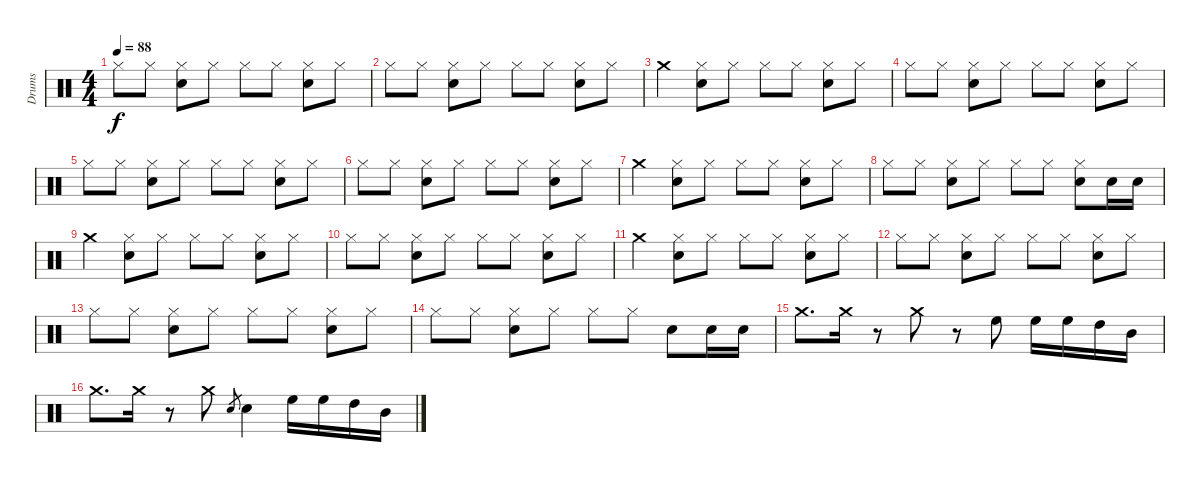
\track ("Drums" "Drums") {instrument percussion}
\staff {score}
\articulation defaults
\ts (4 4)
\tempo 88
\clef neutral
\ks c "Hi-Hat (closed)".8{dy f} "Hi-Hat (closed)".8
("Hi-Hat (closed)" "Electric Snare (hit)").8 "Hi-Hat (closed)".8 "Hi-Hat (closed)".8 "Hi-Hat (closed)".8 ("Hi-Hat (closed)" "Electric Snare (hit)").8 "Hi-Hat (closed)".8 |
"Hi-Hat (closed)".8 "Hi-Hat (closed)".8 ("Hi-Hat (closed)" "Electric Snare (hit)").8 "Hi-Hat (closed)".8 "Hi-Hat (closed)".8 "Hi-Hat (closed)".8 ("Hi-Hat (closed)" "Electric Snare (hit)").8 "Hi-Hat (closed)".8 |
"Crash medium (hit)".4 ("Hi-Hat (closed)" "Electric Snare (hit)").8 "Hi-Hat (closed)".8 "Hi-Hat (closed)".8 "Hi-Hat (closed)".8 ("Hi-Hat (closed)" "Electric Snare (hit)").8 "Hi-Hat (closed)".8 |
"Hi-Hat (closed)".8 "Hi-Hat (closed)".8 ("Hi-Hat (closed)" "Electric Snare (hit)").8 "Hi-Hat (closed)".8 "Hi-Hat (closed)".8 "Hi-Hat (closed)".8 ("Hi-Hat (closed)" "Electric Snare (hit)").8 "Hi-Hat (closed)".8 |
"Hi-Hat (closed)".8 "Hi-Hat (closed)".8 ("Hi-Hat (closed)" "Electric Snare (hit)").8 "Hi-Hat (closed)".8 "Hi-Hat (closed)".8 "Hi-Hat (closed)".8 ("Hi-Hat (closed)" "Electric Snare (hit)").8 "Hi-Hat (closed)".8 |
"Hi-Hat (closed)".8 "Hi-Hat (closed)".8 ("Hi-Hat (closed)" "Electric Snare (hit)").8 "Hi-Hat (closed)".8 "Hi-Hat (closed)".8 "Hi-Hat (closed)".8 ("Hi-Hat (closed)" "Electric Snare (hit)").8 "Hi-Hat (closed)".8 |
"Crash medium (hit)".4 ("Hi-Hat (closed)" "Electric Snare (hit)").8 "Hi-Hat (closed)".8 "Hi-Hat (closed)".8 "Hi-Hat (closed)".8 ("Hi-Hat (closed)" "Electric Snare (hit)").8 "Hi-Hat (closed)".8 |
"Hi-Hat (closed)".8 "Hi-Hat (closed)".8 ("Hi-Hat (closed)" "Electric Snare (hit)").8 "Hi-Hat (closed)".8 "Hi-Hat (closed)".8 "Hi-Hat (closed)".8 ("Hi-Hat (closed)" "Electric Snare (hit)").8 "Electric Snare (hit)".16 "Electric Snare (hit)".16 |
"Crash medium (hit)".4 ("Hi-Hat (closed)" "Electric Snare (hit)").8 "Hi-Hat (closed)".8 "Hi-Hat (closed)".8 "Hi-Hat (closed)".8 ("Hi-Hat (closed)" "Electric Snare (hit)").8 "Hi-Hat (closed)".8 |
"Hi-Hat (closed)".8 "Hi-Hat (closed)".8 ("Hi-Hat (closed)" "Electric Snare (hit)").8 "Hi-Hat (closed)".8 "Hi-Hat (closed)".8 "Hi-Hat (closed)".8 ("Hi-Hat (closed)" "Electric Snare (hit)").8 "Hi-Hat (closed)".8 |
"Crash medium (hit)".4 ("Hi-Hat (closed)" "Electric Snare (hit)").8 "Hi-Hat (closed)".8 "Hi-Hat (closed)".8 "Hi-Hat (closed)".8 ("Hi-Hat (closed)" "Electric Snare (hit)").8 "Hi-Hat (closed)".8 |
"Hi-Hat (closed)".8 "Hi-Hat (closed)".8 ("Hi-Hat (closed)" "Electric Snare (hit)").8 "Hi-Hat (closed)".8 "Hi-Hat (closed)".8 "Hi-Hat (closed)".8 ("Hi-Hat (closed)" "Electric Snare (hit)").8 "Hi-Hat (closed)".8 |
"Hi-Hat (closed)".8 "Hi-Hat (closed)".8 ("Hi-Hat (closed)" "Electric Snare (hit)").8 "Hi-Hat (closed)".8 "Hi-Hat (closed)".8 "Hi-Hat (closed)".8 ("Hi-Hat (closed)" "Electric Snare (hit)").8 "Hi-Hat (closed)".8 |
"Hi-Hat (closed)".8 "Hi-Hat (closed)".8 ("Hi-Hat (closed)" "Electric Snare (hit)").8 "Hi-Hat (closed)".8 "Hi-Hat (closed)".8 "Hi-Hat (closed)".8 "Electric Snare (hit)".8 "Electric Snare (hit)".16 "Electric Snare (hit)".16 |
"Crash medium (hit)".8{d} "Crash medium (hit)".16 r.8 "Crash medium (hit)".8 r.8 "High Floor Tom (hit)".8 "High Floor Tom (hit)".16 "High Floor Tom (hit)".16 "High Tom (hit)".16 "Mid Tom (hit)".16 |
"Crash medium (hit)".8{d} "Crash medium (hit)".16 r.8 "Crash medium (hit)".8 "Electric Snare (hit)".8{gr} "Electric Snare (hit)".4 "High Floor Tom (hit)".16 "High Floor Tom (hit)".16 "High Tom (hit)".16 "Mid Tom (hit)".16
